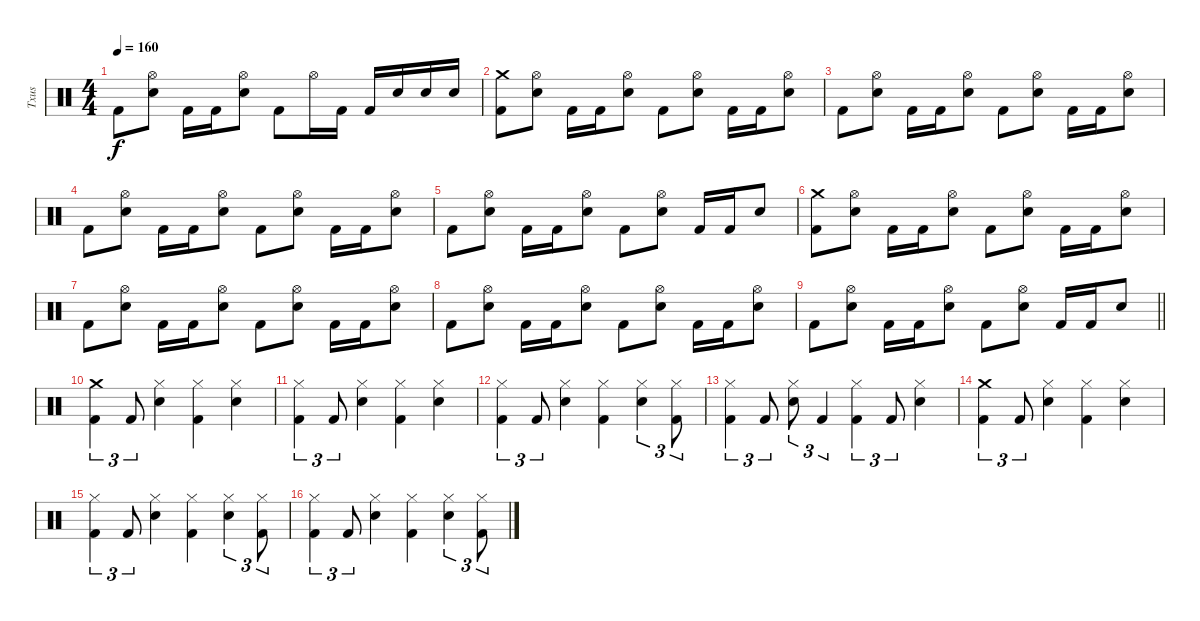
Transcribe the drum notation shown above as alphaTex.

\track ("Txus" "Txus") {instrument percussion}
\staff {score}
\articulation defaults
\ts (4 4)
\tempo 160
\clef neutral
\ks c "Kick (hit) 2".8{dy f}
("Hi-Hat (open)" "Snare (hit) 2").8 "Kick (hit) 2".16 "Kick (hit) 2".16 ("Hi-Hat (open)" "Snare (hit) 2").8 "Kick (hit) 2".8 "Hi-Hat (open)".16 "Kick (hit) 2".16 "Kick (hit) 2".16 "Snare (hit) 2".16 "Snare (hit) 2".16 "Snare (hit) 2".16 |
("Crash medium (hit)" "Kick (hit) 2").8 ("Hi-Hat (open)" "Snare (hit) 2").8 "Kick (hit) 2".16 "Kick (hit) 2".16 ("Hi-Hat (open)" "Snare (hit) 2").8 "Kick (hit) 2".8 ("Hi-Hat (open)" "Snare (hit) 2").8 "Kick (hit) 2".16 "Kick (hit) 2".16 ("Hi-Hat (open)" "Snare (hit) 2").8 |
"Kick (hit) 2".8 ("Hi-Hat (open)" "Snare (hit) 2").8 "Kick (hit) 2".16 "Kick (hit) 2".16 ("Hi-Hat (open)" "Snare (hit) 2").8 "Kick (hit) 2".8 ("Hi-Hat (open)" "Snare (hit) 2").8 "Kick (hit) 2".16 "Kick (hit) 2".16 ("Hi-Hat (open)" "Snare (hit) 2").8 |
"Kick (hit) 2".8 ("Hi-Hat (open)" "Snare (hit) 2").8 "Kick (hit) 2".16 "Kick (hit) 2".16 ("Hi-Hat (open)" "Snare (hit) 2").8 "Kick (hit) 2".8 ("Hi-Hat (open)" "Snare (hit) 2").8 "Kick (hit) 2".16 "Kick (hit) 2".16 ("Hi-Hat (open)" "Snare (hit) 2").8 |
"Kick (hit) 2".8 ("Hi-Hat (open)" "Snare (hit) 2").8 "Kick (hit) 2".16 "Kick (hit) 2".16 ("Hi-Hat (open)" "Snare (hit) 2").8 "Kick (hit) 2".8 ("Hi-Hat (open)" "Snare (hit) 2").8 "Kick (hit) 2".16 "Kick (hit) 2".16 "Snare (hit) 2".8 |
("Crash medium (hit)" "Kick (hit) 2").8 ("Hi-Hat (open)" "Snare (hit) 2").8 "Kick (hit) 2".16 "Kick (hit) 2".16 ("Hi-Hat (open)" "Snare (hit) 2").8 "Kick (hit) 2".8 ("Hi-Hat (open)" "Snare (hit) 2").8 "Kick (hit) 2".16 "Kick (hit) 2".16 ("Hi-Hat (open)" "Snare (hit) 2").8 |
"Kick (hit) 2".8 ("Hi-Hat (open)" "Snare (hit) 2").8 "Kick (hit) 2".16 "Kick (hit) 2".16 ("Hi-Hat (open)" "Snare (hit) 2").8 "Kick (hit) 2".8 ("Hi-Hat (open)" "Snare (hit) 2").8 "Kick (hit) 2".16 "Kick (hit) 2".16 ("Hi-Hat (open)" "Snare (hit) 2").8 |
"Kick (hit) 2".8 ("Hi-Hat (open)" "Snare (hit) 2").8 "Kick (hit) 2".16 "Kick (hit) 2".16 ("Hi-Hat (open)" "Snare (hit) 2").8 "Kick (hit) 2".8 ("Hi-Hat (open)" "Snare (hit) 2").8 "Kick (hit) 2".16 "Kick (hit) 2".16 ("Hi-Hat (open)" "Snare (hit) 2").8 |
\barLineRight lightlight "Kick (hit) 2".8
("Hi-Hat (open)" "Snare (hit) 2").8 "Kick (hit) 2".16 "Kick (hit) 2".16 ("Hi-Hat (open)" "Snare (hit) 2").8 "Kick (hit) 2".8 ("Hi-Hat (open)" "Snare (hit) 2").8 "Kick (hit) 2".16 "Kick (hit) 2".16 "Snare (hit) 2".8 |
("Crash medium (hit)" "Kick (hit) 2").4{tu (3 2)} "Kick (hit) 2".8{tu (3 2)} ("Hi-Hat (closed)" "Snare (hit) 2").4 ("Hi-Hat (closed)" "Kick (hit) 2").4 ("Hi-Hat (closed)" "Snare (hit) 2").4 |
("Hi-Hat (closed)" "Kick (hit) 2").4{tu (3 2)} "Kick (hit) 2".8{tu (3 2)} ("Hi-Hat (closed)" "Snare (hit) 2").4 ("Hi-Hat (closed)" "Kick (hit) 2").4 ("Hi-Hat (closed)" "Snare (hit) 2").4 |
("Hi-Hat (closed)" "Kick (hit) 2").4{tu (3 2)} "Kick (hit) 2".8{tu (3 2)} ("Hi-Hat (closed)" "Snare (hit) 2").4 ("Hi-Hat (closed)" "Kick (hit) 2").4 ("Hi-Hat (closed)" "Snare (hit) 2").4{tu (3 2)} ("Hi-Hat (closed)" "Kick (hit) 2").8{tu (3 2)} |
("Hi-Hat (closed)" "Kick (hit) 2").4{tu (3 2)} "Kick (hit) 2".8{tu (3 2)} ("Hi-Hat (closed)" "Snare (hit) 2").8{tu (3 2)} "Kick (hit) 2".4{tu (3 2)} ("Hi-Hat (closed)" "Kick (hit) 2").4{tu (3 2)} "Kick (hit) 2".8{tu (3 2)} ("Hi-Hat (closed)" "Snare (hit) 2").4 |
("Crash medium (hit)" "Kick (hit) 2").4{tu (3 2)} "Kick (hit) 2".8{tu (3 2)} ("Hi-Hat (closed)" "Snare (hit) 2").4 ("Hi-Hat (closed)" "Kick (hit) 2").4 ("Hi-Hat (closed)" "Snare (hit) 2").4 |
("Hi-Hat (closed)" "Kick (hit) 2").4{tu (3 2)} "Kick (hit) 2".8{tu (3 2)} ("Hi-Hat (closed)" "Snare (hit) 2").4 ("Hi-Hat (closed)" "Kick (hit) 2").4 ("Hi-Hat (closed)" "Snare (hit) 2").4{tu (3 2)} ("Hi-Hat (closed)" "Kick (hit) 2").8{tu (3 2)} |
("Hi-Hat (closed)" "Kick (hit) 2").4{tu (3 2)} "Kick (hit) 2".8{tu (3 2)} ("Hi-Hat (closed)" "Snare (hit) 2").4 ("Hi-Hat (closed)" "Kick (hit) 2").4 ("Hi-Hat (closed)" "Snare (hit) 2").4{tu (3 2)} ("Hi-Hat (closed)" "Kick (hit) 2").8{tu (3 2)}
